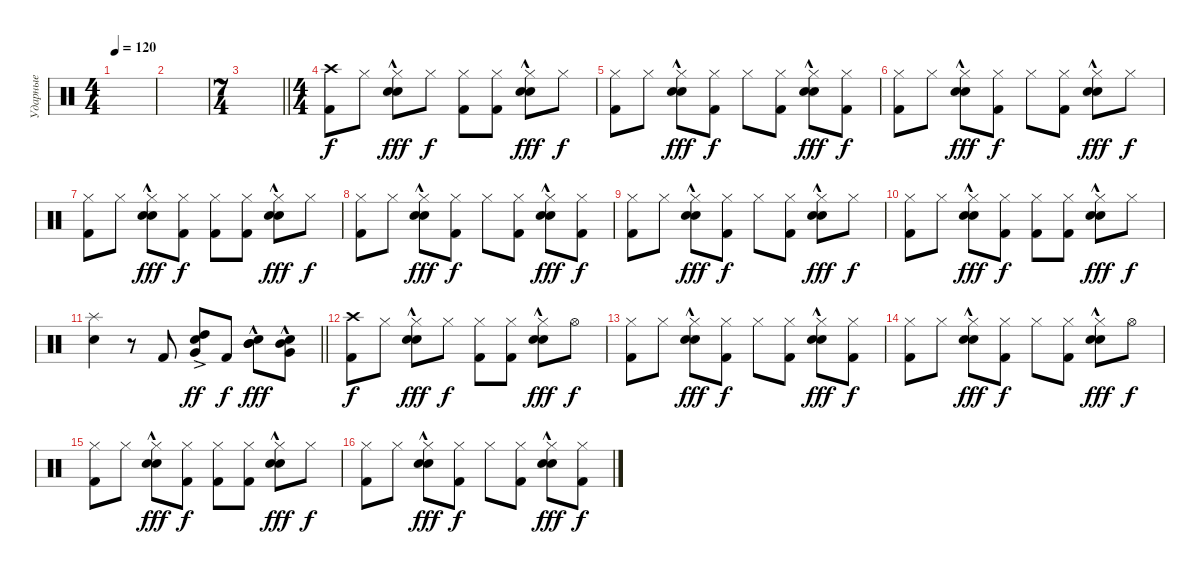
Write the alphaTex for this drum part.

\track ("Ударные" "Ударные") {instrument percussion}
\staff {score}
\articulation defaults
\ts (4 4)
\tempo 120
\clef neutral
\ks c
|
|
\ts (7 4)
\barLineRight lightlight
|
\ts (4 4)
("Crash high (hit)" "Kick (hit) 2").8 "Hi-Hat (closed)".8 ("Hi-Hat (closed)" "Electric Snare (hit)" "Hand Clap (hit)"{hac}).8{dy fff} "Hi-Hat (closed)".8{dy f} ("Hi-Hat (closed)" "Kick (hit) 2").8 ("Hi-Hat (closed)" "Kick (hit) 2").8 ("Hi-Hat (closed)" "Electric Snare (hit)" "Hand Clap (hit)"{hac}).8{dy fff} "Hi-Hat (closed)".8{dy f} |
("Hi-Hat (closed)" "Kick (hit) 2").8 "Hi-Hat (closed)".8 ("Hi-Hat (closed)" "Electric Snare (hit)" "Hand Clap (hit)"{hac}).8{dy fff} ("Hi-Hat (closed)" "Kick (hit) 2").8{dy f} "Hi-Hat (closed)".8 ("Hi-Hat (closed)" "Kick (hit) 2").8 ("Hi-Hat (closed)" "Electric Snare (hit)" "Hand Clap (hit)"{hac}).8{dy fff} ("Hi-Hat (closed)" "Kick (hit) 2").8{dy f} |
("Hi-Hat (closed)" "Kick (hit) 2").8 "Hi-Hat (closed)".8 ("Hi-Hat (closed)" "Electric Snare (hit)" "Hand Clap (hit)"{hac}).8{dy fff} ("Hi-Hat (closed)" "Kick (hit) 2").8{dy f} "Hi-Hat (closed)".8 ("Hi-Hat (closed)" "Kick (hit) 2").8 ("Hi-Hat (closed)" "Electric Snare (hit)" "Hand Clap (hit)"{hac}).8{dy fff} "Hi-Hat (closed)".8{dy f} |
("Hi-Hat (closed)" "Kick (hit) 2").8 "Hi-Hat (closed)".8 ("Hi-Hat (closed)" "Electric Snare (hit)" "Hand Clap (hit)"{hac}).8{dy fff} ("Hi-Hat (closed)" "Kick (hit) 2").8{dy f} ("Hi-Hat (closed)" "Kick (hit) 2").8 ("Hi-Hat (closed)" "Kick (hit) 2").8 ("Hi-Hat (closed)" "Electric Snare (hit)" "Hand Clap (hit)"{hac}).8{dy fff} "Hi-Hat (closed)".8{dy f} |
("Hi-Hat (closed)" "Kick (hit) 2").8 "Hi-Hat (closed)".8 ("Hi-Hat (closed)" "Electric Snare (hit)" "Hand Clap (hit)"{hac}).8{dy fff} ("Hi-Hat (closed)" "Kick (hit) 2").8{dy f} "Hi-Hat (closed)".8 ("Hi-Hat (closed)" "Kick (hit) 2").8 ("Hi-Hat (closed)" "Electric Snare (hit)" "Hand Clap (hit)"{hac}).8{dy fff} ("Hi-Hat (closed)" "Kick (hit) 2").8{dy f} |
("Hi-Hat (closed)" "Kick (hit) 2").8 "Hi-Hat (closed)".8 ("Hi-Hat (closed)" "Electric Snare (hit)" "Hand Clap (hit)"{hac}).8{dy fff} ("Hi-Hat (closed)" "Kick (hit) 2").8{dy f} "Hi-Hat (closed)".8 ("Hi-Hat (closed)" "Kick (hit) 2").8 ("Hi-Hat (closed)" "Electric Snare (hit)" "Hand Clap (hit)"{hac}).8{dy fff} "Hi-Hat (closed)".8{dy f} |
("Hi-Hat (closed)" "Kick (hit) 2").8 "Hi-Hat (closed)".8 ("Hi-Hat (closed)" "Electric Snare (hit)" "Hand Clap (hit)"{hac}).8{dy fff} ("Hi-Hat (closed)" "Kick (hit) 2").8{dy f} ("Hi-Hat (closed)" "Kick (hit) 2").8 ("Hi-Hat (closed)" "Kick (hit) 2").8 ("Hi-Hat (closed)" "Electric Snare (hit)" "Hand Clap (hit)"{hac}).8{dy fff} "Hi-Hat (closed)".8{dy f} |
\barLineRight lightlight
("Splash (hit)" "Electric Snare (hit)").4 r.8 "Kick (hit) 2".8 ("Very Low Tom (hit)"{ac} "High Tom (hit)" "Electric Snare (hit)").8{dy ff} "Kick (hit) 2".8{dy f} ("Mid Tom (hit)"{hac} "Mid Tom (hit)"{hac} "Electric Snare (hit)").8{dy fff} ("Mid Tom (hit)"{hac} "Very Low Tom (hit)" "Electric Snare (hit)").8 |
("Crash high (hit)" "Kick (hit) 2").8{dy f} "Hi-Hat (closed)".8 ("Hi-Hat (closed)" "Electric Snare (hit)" "Hand Clap (hit)"{hac}).8{dy fff} "Hi-Hat (closed)".8{dy f} ("Hi-Hat (closed)" "Kick (hit) 2").8 ("Hi-Hat (closed)" "Kick (hit) 2").8 ("Hi-Hat (closed)" "Electric Snare (hit)" "Hand Clap (hit)"{hac}).8{dy fff} "Hi-Hat (open)".8{dy f} |
("Hi-Hat (closed)" "Kick (hit) 2").8 "Hi-Hat (closed)".8 ("Hi-Hat (closed)" "Electric Snare (hit)" "Hand Clap (hit)"{hac}).8{dy fff} ("Hi-Hat (closed)" "Kick (hit) 2").8{dy f} "Hi-Hat (closed)".8 ("Hi-Hat (closed)" "Kick (hit) 2").8 ("Hi-Hat (closed)" "Electric Snare (hit)" "Hand Clap (hit)"{hac}).8{dy fff} ("Hi-Hat (closed)" "Kick (hit) 2").8{dy f} |
("Hi-Hat (closed)" "Kick (hit) 2").8 "Hi-Hat (closed)".8 ("Hi-Hat (closed)" "Electric Snare (hit)" "Hand Clap (hit)"{hac}).8{dy fff} ("Hi-Hat (closed)" "Kick (hit) 2").8{dy f} "Hi-Hat (closed)".8 ("Hi-Hat (closed)" "Kick (hit) 2").8 ("Hi-Hat (closed)" "Electric Snare (hit)" "Hand Clap (hit)"{hac}).8{dy fff} "Hi-Hat (open)".8{dy f} |
("Hi-Hat (closed)" "Kick (hit) 2").8 "Hi-Hat (closed)".8 ("Hi-Hat (closed)" "Electric Snare (hit)" "Hand Clap (hit)"{hac}).8{dy fff} ("Hi-Hat (closed)" "Kick (hit) 2").8{dy f} ("Hi-Hat (closed)" "Kick (hit) 2").8 ("Hi-Hat (closed)" "Kick (hit) 2").8 ("Hi-Hat (closed)" "Electric Snare (hit)" "Hand Clap (hit)"{hac}).8{dy fff} "Hi-Hat (closed)".8{dy f} |
("Hi-Hat (closed)" "Kick (hit) 2").8 "Hi-Hat (closed)".8 ("Hi-Hat (closed)" "Electric Snare (hit)" "Hand Clap (hit)"{hac}).8{dy fff} ("Hi-Hat (closed)" "Kick (hit) 2").8{dy f} "Hi-Hat (closed)".8 ("Hi-Hat (closed)" "Kick (hit) 2").8 ("Hi-Hat (closed)" "Electric Snare (hit)" "Hand Clap (hit)"{hac}).8{dy fff} ("Hi-Hat (closed)" "Kick (hit) 2").8{dy f}
